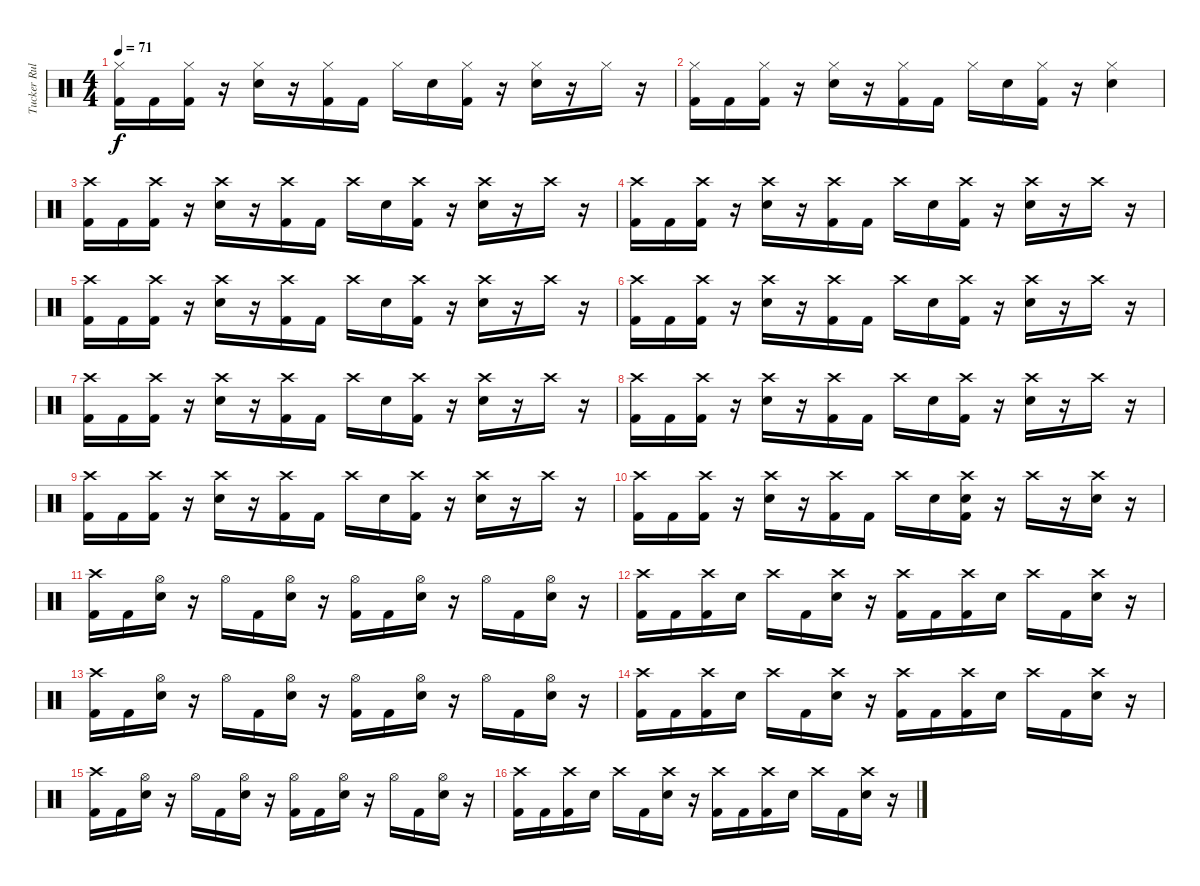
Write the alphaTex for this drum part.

\track ("Tucker Rule (Drums)" "Tucker Rul") {instrument percussion}
\staff {score}
\articulation defaults
\ts (4 4)
\tempo 71
\clef neutral
\ks c
("Hi-Hat (closed)" "Kick (hit) 2").16{dy f} "Kick (hit) 2".16 ("Hi-Hat (closed)" "Kick (hit) 2").16 r.16 ("Hi-Hat (closed)" "Electric Snare (hit)").16 r.16 ("Hi-Hat (closed)" "Kick (hit) 2").16 "Kick (hit) 2".16 "Hi-Hat (closed)".16 "Electric Snare (hit)".16 ("Hi-Hat (closed)" "Kick (hit) 2").16 r.16 ("Hi-Hat (closed)" "Electric Snare (hit)").16 r.16 "Hi-Hat (closed)".16 r.16 |
("Hi-Hat (closed)" "Kick (hit) 2").16 "Kick (hit) 2".16 ("Hi-Hat (closed)" "Kick (hit) 2").16 r.16 ("Hi-Hat (closed)" "Electric Snare (hit)").16 r.16 ("Hi-Hat (closed)" "Kick (hit) 2").16 "Kick (hit) 2".16 "Hi-Hat (closed)".16 "Electric Snare (hit)".16 ("Hi-Hat (closed)" "Kick (hit) 2").16 r.16 ("Hi-Hat (closed)" "Electric Snare (hit)").4 |
("Crash high (hit)" "Kick (hit) 2").16 "Kick (hit) 2".16 ("Crash high (hit)" "Kick (hit) 2").16 r.16 ("Crash high (hit)" "Electric Snare (hit)").16 r.16 ("Crash high (hit)" "Kick (hit) 2").16 "Kick (hit) 2".16 "Crash high (hit)".16 "Electric Snare (hit)".16 ("Crash high (hit)" "Kick (hit) 2").16 r.16 ("Crash high (hit)" "Electric Snare (hit)").16 r.16 "Crash high (hit)".16 r.16 |
("Crash high (hit)" "Kick (hit) 2").16 "Kick (hit) 2".16 ("Crash high (hit)" "Kick (hit) 2").16 r.16 ("Crash high (hit)" "Electric Snare (hit)").16 r.16 ("Crash high (hit)" "Kick (hit) 2").16 "Kick (hit) 2".16 "Crash high (hit)".16 "Electric Snare (hit)".16 ("Crash high (hit)" "Kick (hit) 2").16 r.16 ("Crash high (hit)" "Electric Snare (hit)").16 r.16 "Crash high (hit)".16 r.16 |
("Crash high (hit)" "Kick (hit) 2").16 "Kick (hit) 2".16 ("Crash high (hit)" "Kick (hit) 2").16 r.16 ("Crash high (hit)" "Electric Snare (hit)").16 r.16 ("Crash high (hit)" "Kick (hit) 2").16 "Kick (hit) 2".16 "Crash high (hit)".16 "Electric Snare (hit)".16 ("Crash high (hit)" "Kick (hit) 2").16 r.16 ("Crash high (hit)" "Electric Snare (hit)").16 r.16 "Crash high (hit)".16 r.16 |
("Crash high (hit)" "Kick (hit) 2").16 "Kick (hit) 2".16 ("Crash high (hit)" "Kick (hit) 2").16 r.16 ("Crash high (hit)" "Electric Snare (hit)").16 r.16 ("Crash high (hit)" "Kick (hit) 2").16 "Kick (hit) 2".16 "Crash high (hit)".16 "Electric Snare (hit)".16 ("Crash high (hit)" "Kick (hit) 2").16 r.16 ("Crash high (hit)" "Electric Snare (hit)").16 r.16 "Crash high (hit)".16 r.16 |
("Crash high (hit)" "Kick (hit) 2").16 "Kick (hit) 2".16 ("Crash high (hit)" "Kick (hit) 2").16 r.16 ("Crash high (hit)" "Electric Snare (hit)").16 r.16 ("Crash high (hit)" "Kick (hit) 2").16 "Kick (hit) 2".16 "Crash high (hit)".16 "Electric Snare (hit)".16 ("Crash high (hit)" "Kick (hit) 2").16 r.16 ("Crash high (hit)" "Electric Snare (hit)").16 r.16 "Crash high (hit)".16 r.16 |
("Crash high (hit)" "Kick (hit) 2").16 "Kick (hit) 2".16 ("Crash high (hit)" "Kick (hit) 2").16 r.16 ("Crash high (hit)" "Electric Snare (hit)").16 r.16 ("Crash high (hit)" "Kick (hit) 2").16 "Kick (hit) 2".16 "Crash high (hit)".16 "Electric Snare (hit)".16 ("Crash high (hit)" "Kick (hit) 2").16 r.16 ("Crash high (hit)" "Electric Snare (hit)").16 r.16 "Crash high (hit)".16 r.16 |
("Crash high (hit)" "Kick (hit) 2").16 "Kick (hit) 2".16 ("Crash high (hit)" "Kick (hit) 2").16 r.16 ("Crash high (hit)" "Electric Snare (hit)").16 r.16 ("Crash high (hit)" "Kick (hit) 2").16 "Kick (hit) 2".16 "Crash high (hit)".16 "Electric Snare (hit)".16 ("Crash high (hit)" "Kick (hit) 2").16 r.16 ("Crash high (hit)" "Electric Snare (hit)").16 r.16 "Crash high (hit)".16 r.16 |
("Crash high (hit)" "Kick (hit) 2").16 "Kick (hit) 2".16 ("Crash high (hit)" "Kick (hit) 2").16 r.16 ("Crash high (hit)" "Electric Snare (hit)").16 r.16 ("Crash high (hit)" "Kick (hit) 2").16 "Kick (hit) 2".16 "Crash high (hit)".16 "Electric Snare (hit)".16 ("Crash high (hit)" "Electric Snare (hit)" "Kick (hit) 2").16 r.16 "Crash high (hit)".16 r.16 ("Crash high (hit)" "Electric Snare (hit)").16 r.16 |
("Crash high (hit)" "Kick (hit) 2").16 "Kick (hit) 2".16 ("Hi-Hat (open)" "Electric Snare (hit)").16 r.16 "Hi-Hat (open)".16 "Kick (hit) 2".16 ("Hi-Hat (open)" "Electric Snare (hit)").16 r.16 ("Hi-Hat (open)" "Kick (hit) 2").16 "Kick (hit) 2".16 ("Hi-Hat (open)" "Electric Snare (hit)").16 r.16 "Hi-Hat (open)".16 "Kick (hit) 2".16 ("Hi-Hat (open)" "Electric Snare (hit)").16 r.16 |
("Crash high (hit)" "Kick (hit) 2").16 "Kick (hit) 2".16 ("Crash high (hit)" "Kick (hit) 2").16 "Electric Snare (hit)".16 "Crash high (hit)".16 "Kick (hit) 2".16 ("Crash high (hit)" "Electric Snare (hit)").16 r.16 ("Crash high (hit)" "Kick (hit) 2").16 "Kick (hit) 2".16 ("Crash high (hit)" "Kick (hit) 2").16 "Electric Snare (hit)".16 "Crash high (hit)".16 "Kick (hit) 2".16 ("Crash high (hit)" "Electric Snare (hit)").16 r.16 |
("Crash high (hit)" "Kick (hit) 2").16 "Kick (hit) 2".16 ("Hi-Hat (open)" "Electric Snare (hit)").16 r.16 "Hi-Hat (open)".16 "Kick (hit) 2".16 ("Hi-Hat (open)" "Electric Snare (hit)").16 r.16 ("Hi-Hat (open)" "Kick (hit) 2").16 "Kick (hit) 2".16 ("Hi-Hat (open)" "Electric Snare (hit)").16 r.16 "Hi-Hat (open)".16 "Kick (hit) 2".16 ("Hi-Hat (open)" "Electric Snare (hit)").16 r.16 |
("Crash high (hit)" "Kick (hit) 2").16 "Kick (hit) 2".16 ("Crash high (hit)" "Kick (hit) 2").16 "Electric Snare (hit)".16 "Crash high (hit)".16 "Kick (hit) 2".16 ("Crash high (hit)" "Electric Snare (hit)").16 r.16 ("Crash high (hit)" "Kick (hit) 2").16 "Kick (hit) 2".16 ("Crash high (hit)" "Kick (hit) 2").16 "Electric Snare (hit)".16 "Crash high (hit)".16 "Kick (hit) 2".16 ("Crash high (hit)" "Electric Snare (hit)").16 r.16 |
("Crash high (hit)" "Kick (hit) 2").16 "Kick (hit) 2".16 ("Hi-Hat (open)" "Electric Snare (hit)").16 r.16 "Hi-Hat (open)".16 "Kick (hit) 2".16 ("Hi-Hat (open)" "Electric Snare (hit)").16 r.16 ("Hi-Hat (open)" "Kick (hit) 2").16 "Kick (hit) 2".16 ("Hi-Hat (open)" "Electric Snare (hit)").16 r.16 "Hi-Hat (open)".16 "Kick (hit) 2".16 ("Hi-Hat (open)" "Electric Snare (hit)").16 r.16 |
("Crash high (hit)" "Kick (hit) 2").16 "Kick (hit) 2".16 ("Crash high (hit)" "Kick (hit) 2").16 "Electric Snare (hit)".16 "Crash high (hit)".16 "Kick (hit) 2".16 ("Crash high (hit)" "Electric Snare (hit)").16 r.16 ("Crash high (hit)" "Kick (hit) 2").16 "Kick (hit) 2".16 ("Crash high (hit)" "Kick (hit) 2").16 "Electric Snare (hit)".16 "Crash high (hit)".16 "Kick (hit) 2".16 ("Crash high (hit)" "Electric Snare (hit)").16 r.16
